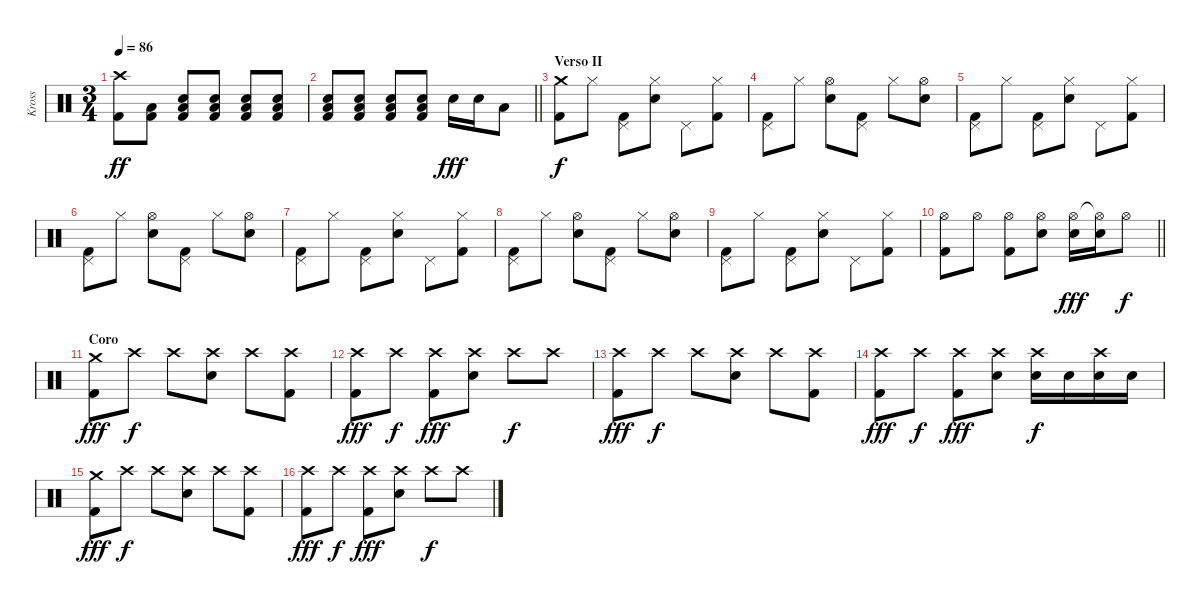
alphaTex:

\track ("Kross" "Kross") {instrument percussion}
\staff {score}
\articulation defaults
\ts (3 4)
\tempo 86
\clef neutral
\ks c
("Crash high (hit)" "Kick (hit) 2").8{dy ff} ("Low Floor Tom (hit)" "Kick (hit) 2").8 ("Electric Snare (hit)" "Low Floor Tom (hit)" "Kick (hit) 2").8 ("Electric Snare (hit)" "Low Floor Tom (hit)" "Kick (hit) 2").8 ("Electric Snare (hit)" "Low Floor Tom (hit)" "Kick (hit) 2").8 ("Electric Snare (hit)" "Low Floor Tom (hit)" "Kick (hit) 2").8 |
\barLineRight lightlight
("Electric Snare (hit)" "Low Floor Tom (hit)" "Kick (hit) 2").8 ("Electric Snare (hit)" "Low Floor Tom (hit)" "Kick (hit) 2").8 ("Electric Snare (hit)" "Low Floor Tom (hit)" "Kick (hit) 2").8 ("Electric Snare (hit)" "Low Floor Tom (hit)" "Kick (hit) 2").8 "Electric Snare (hit)".16{dy fff} "Electric Snare (hit)".16 "Low Tom (hit)".8 |
\section ("" "Verso II")
("Crash medium (hit)" "Kick (hit) 2").8{dy f} "Hi-Hat (closed)".8 ("Pedal Hi-Hat (hit)" "Kick (hit) 2").8 ("Hi-Hat (closed)" "Electric Snare (hit)").8 "Pedal Hi-Hat (hit)".8 ("Hi-Hat (closed)" "Kick (hit) 2").8 |
("Pedal Hi-Hat (hit)" "Kick (hit) 2").8 "Hi-Hat (closed)".8 ("Hi-Hat (open)" "Electric Snare (hit)").8 ("Pedal Hi-Hat (hit)" "Kick (hit) 2").8 "Hi-Hat (closed)".8 ("Hi-Hat (open)" "Electric Snare (hit)").8 |
("Pedal Hi-Hat (hit)" "Kick (hit) 2").8 "Hi-Hat (closed)".8 ("Pedal Hi-Hat (hit)" "Kick (hit) 2").8 ("Hi-Hat (closed)" "Electric Snare (hit)").8 "Pedal Hi-Hat (hit)".8 ("Hi-Hat (closed)" "Kick (hit) 2").8 |
("Pedal Hi-Hat (hit)" "Kick (hit) 2").8 "Hi-Hat (closed)".8 ("Hi-Hat (open)" "Electric Snare (hit)").8 ("Pedal Hi-Hat (hit)" "Kick (hit) 2").8 "Hi-Hat (closed)".8 ("Hi-Hat (open)" "Electric Snare (hit)").8 |
("Pedal Hi-Hat (hit)" "Kick (hit) 2").8 "Hi-Hat (closed)".8 ("Pedal Hi-Hat (hit)" "Kick (hit) 2").8 ("Hi-Hat (closed)" "Electric Snare (hit)").8 "Pedal Hi-Hat (hit)".8 ("Hi-Hat (closed)" "Kick (hit) 2").8 |
("Pedal Hi-Hat (hit)" "Kick (hit) 2").8 "Hi-Hat (closed)".8 ("Hi-Hat (open)" "Electric Snare (hit)").8 ("Pedal Hi-Hat (hit)" "Kick (hit) 2").8 "Hi-Hat (closed)".8 ("Hi-Hat (open)" "Electric Snare (hit)").8 |
("Pedal Hi-Hat (hit)" "Kick (hit) 2").8 "Hi-Hat (closed)".8 ("Pedal Hi-Hat (hit)" "Kick (hit) 2").8 ("Hi-Hat (closed)" "Electric Snare (hit)").8 "Pedal Hi-Hat (hit)".8 ("Hi-Hat (closed)" "Kick (hit) 2").8 |
\barLineRight lightlight
("Hi-Hat (open)" "Kick (hit) 2").8 "Hi-Hat (open)".8 ("Hi-Hat (open)" "Kick (hit) 2").8 ("Hi-Hat (open)" "Electric Snare (hit)").8 ("Hi-Hat (open)" "Electric Snare (hit)").16{dy fff} ("Hi-Hat (open)"{t} "Electric Snare (hit)").16 "Hi-Hat (open)".8{dy f} |
\section ("" "Coro")
("Crash medium (hit)" "Kick (hit) 2").8{dy fff} "Crash high (hit)".8{dy f} "Crash high (hit)".8 ("Crash high (hit)" "Electric Snare (hit)").8 "Crash high (hit)".8 ("Crash high (hit)" "Kick (hit) 2").8 |
("Crash high (hit)" "Kick (hit) 2").8{dy fff} "Crash high (hit)".8{dy f} ("Crash high (hit)" "Kick (hit) 2").8{dy fff} ("Crash high (hit)" "Electric Snare (hit)").8 "Crash high (hit)".8{dy f} "Crash high (hit)".8 |
("Crash high (hit)" "Kick (hit) 2").8{dy fff} "Crash high (hit)".8{dy f} "Crash high (hit)".8 ("Crash high (hit)" "Electric Snare (hit)").8 "Crash high (hit)".8 ("Crash high (hit)" "Kick (hit) 2").8 |
("Crash high (hit)" "Kick (hit) 2").8{dy fff} "Crash high (hit)".8{dy f} ("Crash high (hit)" "Kick (hit) 2").8{dy fff} ("Crash high (hit)" "Electric Snare (hit)").8 ("Crash high (hit)" "Electric Snare (hit)").16{dy f} "Electric Snare (hit)".16 ("Crash high (hit)" "Electric Snare (hit)").16 "Electric Snare (hit)".16 |
("Crash medium (hit)" "Kick (hit) 2").8{dy fff} "Crash high (hit)".8{dy f} "Crash high (hit)".8 ("Crash high (hit)" "Electric Snare (hit)").8 "Crash high (hit)".8 ("Crash high (hit)" "Kick (hit) 2").8 |
("Crash high (hit)" "Kick (hit) 2").8{dy fff} "Crash high (hit)".8{dy f} ("Crash high (hit)" "Kick (hit) 2").8{dy fff} ("Crash high (hit)" "Electric Snare (hit)").8 "Crash high (hit)".8{dy f} "Crash high (hit)".8
